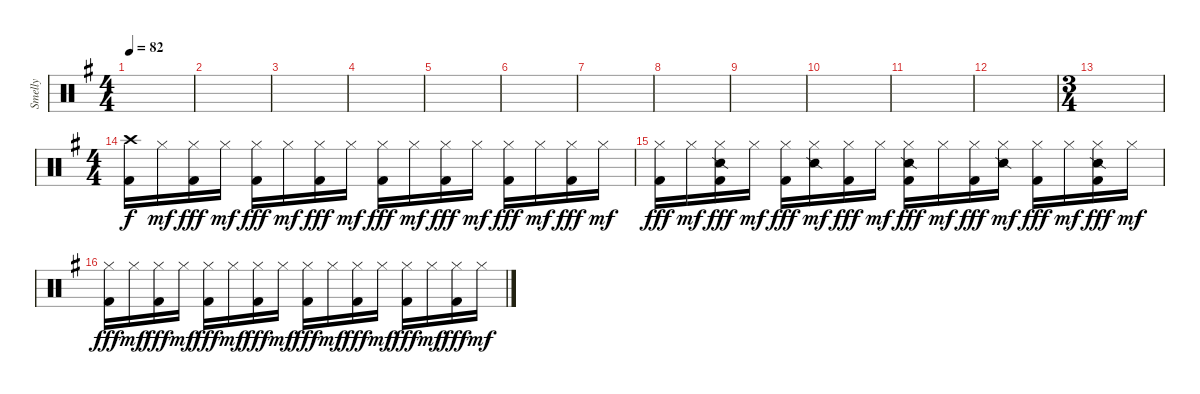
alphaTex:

\track ("Smelly" "Smelly") {instrument percussion}
\staff {score}
\articulation defaults
\ts (4 4)
\tempo 82
\clef neutral
\ks eminor
|
|
|
|
|
|
|
|
|
|
|
|
\ts (3 4)
|
\ts (4 4)
("Crash high (hit)" "Kick (hit) 2").16 "Hi-Hat (closed)".16{dy mf} ("Hi-Hat (closed)" "Kick (hit) 2").16{dy fff} "Hi-Hat (closed)".16{dy mf} ("Hi-Hat (closed)" "Kick (hit) 2").16{dy fff} "Hi-Hat (closed)".16{dy mf} ("Hi-Hat (closed)" "Kick (hit) 2").16{dy fff} "Hi-Hat (closed)".16{dy mf} ("Hi-Hat (closed)" "Kick (hit) 2").16{dy fff} "Hi-Hat (closed)".16{dy mf} ("Hi-Hat (closed)" "Kick (hit) 2").16{dy fff} "Hi-Hat (closed)".16{dy mf} ("Hi-Hat (closed)" "Kick (hit) 2").16{dy fff} "Hi-Hat (closed)".16{dy mf} ("Hi-Hat (closed)" "Kick (hit) 2").16{dy fff} "Hi-Hat (closed)".16{dy mf} |
("Hi-Hat (closed)" "Kick (hit) 2").16{dy fff} "Hi-Hat (closed)".16{dy mf} ("Hi-Hat (closed)" "Snare (side stick) 2" "Kick (hit) 2").16{dy fff} "Hi-Hat (closed)".16{dy mf} ("Hi-Hat (closed)" "Kick (hit) 2").16{dy fff} ("Hi-Hat (closed)" "Snare (side stick) 2").16{dy mf} ("Hi-Hat (closed)" "Kick (hit) 2").16{dy fff} "Hi-Hat (closed)".16{dy mf} ("Hi-Hat (closed)" "Snare (side stick) 2" "Kick (hit) 2").16{dy fff} "Hi-Hat (closed)".16{dy mf} ("Hi-Hat (closed)" "Kick (hit) 2").16{dy fff} ("Hi-Hat (closed)" "Snare (side stick) 2").16{dy mf} ("Hi-Hat (closed)" "Kick (hit) 2").16{dy fff} "Hi-Hat (closed)".16{dy mf} ("Hi-Hat (closed)" "Snare (side stick) 2" "Kick (hit) 2").16{dy fff} "Hi-Hat (closed)".16{dy mf} |
("Hi-Hat (closed)" "Kick (hit) 2").16{dy fff} "Hi-Hat (closed)".16{dy mf} ("Hi-Hat (closed)" "Kick (hit) 2").16{dy fff} "Hi-Hat (closed)".16{dy mf} ("Hi-Hat (closed)" "Kick (hit) 2").16{dy fff} "Hi-Hat (closed)".16{dy mf} ("Hi-Hat (closed)" "Kick (hit) 2").16{dy fff} "Hi-Hat (closed)".16{dy mf} ("Hi-Hat (closed)" "Kick (hit) 2").16{dy fff} "Hi-Hat (closed)".16{dy mf} ("Hi-Hat (closed)" "Kick (hit) 2").16{dy fff} "Hi-Hat (closed)".16{dy mf} ("Hi-Hat (closed)" "Kick (hit) 2").16{dy fff} "Hi-Hat (closed)".16{dy mf} ("Hi-Hat (closed)" "Kick (hit) 2").16{dy fff} "Hi-Hat (closed)".16{dy mf}
